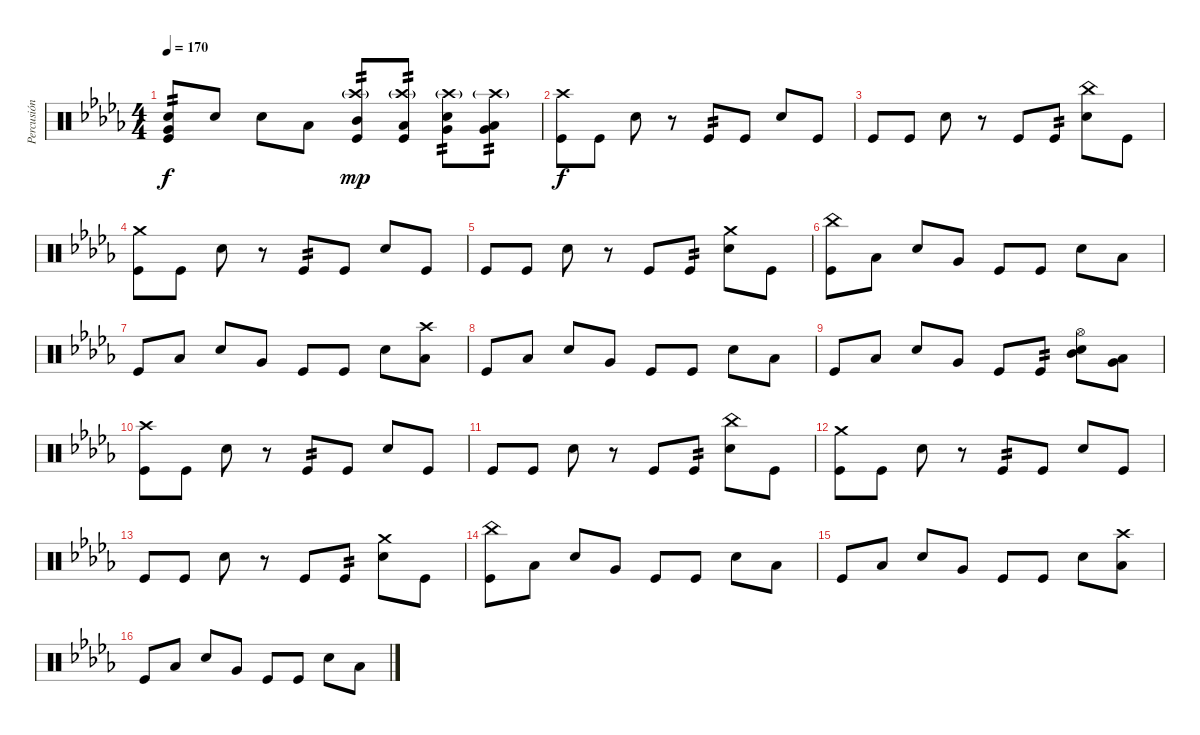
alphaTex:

\track ("Percusión" "Percusión") {instrument percussion}
\staff {score}
\articulation defaults
\ts (4 4)
\tempo 170
\clef neutral
\ks db
("Very Low Tom (hit)" "Electric Snare (hit)" "Kick (hit)").8{tp 2 dy f} "Electric Snare (hit)".8 "Electric Snare (hit)".8 "Low Floor Tom (hit)".8 ("Crash high (hit)"{g} "Mid Tom (hit)" "Kick (hit)").8{tp 2 dy mp} ("Crash high (hit)"{g} "Low Tom (hit)" "Kick (hit)").8{tp 2} ("Crash high (hit)"{g} "Very Low Tom (hit)" "Electric Snare (hit)").8{tp 2} ("Crash high (hit)"{g} "Low Floor Tom (hit)" "Very Low Tom (hit)").8{tp 2} |
("Crash high (hit)" "Kick (hit)").8{dy f} "Kick (hit)".8 "Electric Snare (hit)".8 r.8 "Kick (hit)".8{tp 2} "Kick (hit)".8 "Electric Snare (hit)".8 "Kick (hit)".8 |
"Kick (hit)".8 "Kick (hit)".8 "Electric Snare (hit)".8 r.8 "Kick (hit)".8 "Kick (hit)".8{tp 2} ("China (hit)" "Electric Snare (hit)").8 "Kick (hit)".8 |
("Crash medium (hit)" "Kick (hit)").8 "Kick (hit)".8 "Electric Snare (hit)".8 r.8 "Kick (hit)".8{tp 2} "Kick (hit)".8 "Electric Snare (hit)".8 "Kick (hit)".8 |
"Kick (hit)".8 "Kick (hit)".8 "Electric Snare (hit)".8 r.8 "Kick (hit)".8 "Kick (hit)".8{tp 2} ("Crash medium (hit)" "Electric Snare (hit)").8 "Kick (hit)".8 |
("China (hit)" "Kick (hit)").8 "Low Floor Tom (hit)".8 "Electric Snare (hit)".8 "Very Low Tom (hit)".8 "Kick (hit)".8 "Kick (hit)".8 "Electric Snare (hit)".8 "Low Tom (hit)".8 |
"Kick (hit)".8 "Low Floor Tom (hit)".8 "Electric Snare (hit)".8 "Very Low Tom (hit)".8 "Kick (hit)".8 "Kick (hit)".8 "Electric Snare (hit)".8 ("Crash high (hit)" "Low Tom (hit)").8 |
"Kick (hit)".8 "Low Floor Tom (hit)".8 "Electric Snare (hit)".8 "Very Low Tom (hit)".8 "Kick (hit)".8 "Kick (hit)".8 "Electric Snare (hit)".8 "Low Tom (hit)".8 |
"Kick (hit)".8 "Low Floor Tom (hit)".8 "Electric Snare (hit)".8 "Very Low Tom (hit)".8 "Kick (hit)".8 "Kick (hit)".8{tp 2} ("Hi-Hat (open)" "Mid Tom (hit)" "Electric Snare (hit)").8 ("Low Tom (hit)" "Very Low Tom (hit)").8 |
("Crash high (hit)" "Kick (hit)").8 "Kick (hit)".8 "Electric Snare (hit)".8 r.8 "Kick (hit)".8{tp 2} "Kick (hit)".8 "Electric Snare (hit)".8 "Kick (hit)".8 |
"Kick (hit)".8 "Kick (hit)".8 "Electric Snare (hit)".8 r.8 "Kick (hit)".8 "Kick (hit)".8{tp 2} ("China (hit)" "Electric Snare (hit)").8 "Kick (hit)".8 |
("Crash medium (hit)" "Kick (hit)").8 "Kick (hit)".8 "Electric Snare (hit)".8 r.8 "Kick (hit)".8{tp 2} "Kick (hit)".8 "Electric Snare (hit)".8 "Kick (hit)".8 |
"Kick (hit)".8 "Kick (hit)".8 "Electric Snare (hit)".8 r.8 "Kick (hit)".8 "Kick (hit)".8{tp 2} ("Crash medium (hit)" "Electric Snare (hit)").8 "Kick (hit)".8 |
("China (hit)" "Kick (hit)").8 "Low Floor Tom (hit)".8 "Electric Snare (hit)".8 "Very Low Tom (hit)".8 "Kick (hit)".8 "Kick (hit)".8 "Electric Snare (hit)".8 "Low Tom (hit)".8 |
"Kick (hit)".8 "Low Floor Tom (hit)".8 "Electric Snare (hit)".8 "Very Low Tom (hit)".8 "Kick (hit)".8 "Kick (hit)".8 "Electric Snare (hit)".8 ("Crash high (hit)" "Low Tom (hit)").8 |
"Kick (hit)".8 "Low Floor Tom (hit)".8 "Electric Snare (hit)".8 "Very Low Tom (hit)".8 "Kick (hit)".8 "Kick (hit)".8 "Electric Snare (hit)".8 "Low Tom (hit)".8
